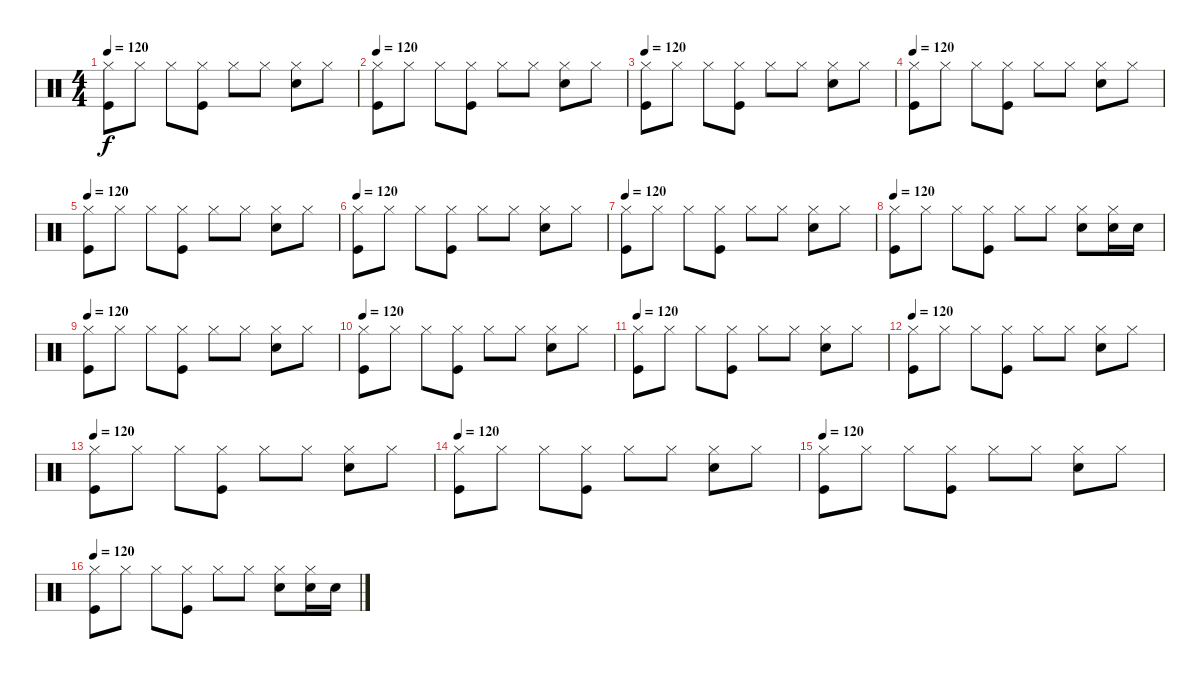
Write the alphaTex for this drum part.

\track "" {instrument percussion}
\staff {score}
\articulation defaults
\ts (4 4)
\tempo 120
\clef neutral
\ks c
("Hi-Hat (closed)" "Kick (hit)").8{dy f} "Hi-Hat (closed)".8 "Hi-Hat (closed)".8 ("Kick (hit)" "Hi-Hat (closed)").8 "Hi-Hat (closed)".8 "Hi-Hat (closed)".8 ("Electric Snare (hit)" "Hi-Hat (closed)").8 "Hi-Hat (closed)".8 |
\tempo 120
("Hi-Hat (closed)" "Kick (hit)").8 "Hi-Hat (closed)".8 "Hi-Hat (closed)".8 ("Kick (hit)" "Hi-Hat (closed)").8 "Hi-Hat (closed)".8 "Hi-Hat (closed)".8 ("Electric Snare (hit)" "Hi-Hat (closed)").8 "Hi-Hat (closed)".8 |
\tempo 120
("Hi-Hat (closed)" "Kick (hit)").8 "Hi-Hat (closed)".8 "Hi-Hat (closed)".8 ("Kick (hit)" "Hi-Hat (closed)").8 "Hi-Hat (closed)".8 "Hi-Hat (closed)".8 ("Electric Snare (hit)" "Hi-Hat (closed)").8 "Hi-Hat (closed)".8 |
\tempo 120
("Hi-Hat (closed)" "Kick (hit)").8 "Hi-Hat (closed)".8 "Hi-Hat (closed)".8 ("Kick (hit)" "Hi-Hat (closed)").8 "Hi-Hat (closed)".8 "Hi-Hat (closed)".8 ("Electric Snare (hit)" "Hi-Hat (closed)").8 "Hi-Hat (closed)".8 |
\tempo 120
("Hi-Hat (closed)" "Kick (hit)").8 "Hi-Hat (closed)".8 "Hi-Hat (closed)".8 ("Kick (hit)" "Hi-Hat (closed)").8 "Hi-Hat (closed)".8 "Hi-Hat (closed)".8 ("Electric Snare (hit)" "Hi-Hat (closed)").8 "Hi-Hat (closed)".8 |
\tempo 120
("Hi-Hat (closed)" "Kick (hit)").8 "Hi-Hat (closed)".8 "Hi-Hat (closed)".8 ("Kick (hit)" "Hi-Hat (closed)").8 "Hi-Hat (closed)".8 "Hi-Hat (closed)".8 ("Electric Snare (hit)" "Hi-Hat (closed)").8 "Hi-Hat (closed)".8 |
\tempo 120
("Hi-Hat (closed)" "Kick (hit)").8 "Hi-Hat (closed)".8 "Hi-Hat (closed)".8 ("Kick (hit)" "Hi-Hat (closed)").8 "Hi-Hat (closed)".8 "Hi-Hat (closed)".8 ("Electric Snare (hit)" "Hi-Hat (closed)").8 "Hi-Hat (closed)".8 |
\tempo 120
("Hi-Hat (closed)" "Kick (hit)").8 "Hi-Hat (closed)".8 "Hi-Hat (closed)".8 ("Kick (hit)" "Hi-Hat (closed)").8 "Hi-Hat (closed)".8 "Hi-Hat (closed)".8 ("Electric Snare (hit)" "Hi-Hat (closed)").8 ("Electric Snare (hit)" "Hi-Hat (closed)").16 "Electric Snare (hit)".16 |
\tempo 120
("Hi-Hat (closed)" "Kick (hit)").8 "Hi-Hat (closed)".8 "Hi-Hat (closed)".8 ("Kick (hit)" "Hi-Hat (closed)").8 "Hi-Hat (closed)".8 "Hi-Hat (closed)".8 ("Electric Snare (hit)" "Hi-Hat (closed)").8 "Hi-Hat (closed)".8 |
\tempo 120
("Hi-Hat (closed)" "Kick (hit)").8 "Hi-Hat (closed)".8 "Hi-Hat (closed)".8 ("Kick (hit)" "Hi-Hat (closed)").8 "Hi-Hat (closed)".8 "Hi-Hat (closed)".8 ("Electric Snare (hit)" "Hi-Hat (closed)").8 "Hi-Hat (closed)".8 |
\tempo 120
("Hi-Hat (closed)" "Kick (hit)").8 "Hi-Hat (closed)".8 "Hi-Hat (closed)".8 ("Kick (hit)" "Hi-Hat (closed)").8 "Hi-Hat (closed)".8 "Hi-Hat (closed)".8 ("Electric Snare (hit)" "Hi-Hat (closed)").8 "Hi-Hat (closed)".8 |
\tempo 120
("Hi-Hat (closed)" "Kick (hit)").8 "Hi-Hat (closed)".8 "Hi-Hat (closed)".8 ("Kick (hit)" "Hi-Hat (closed)").8 "Hi-Hat (closed)".8 "Hi-Hat (closed)".8 ("Electric Snare (hit)" "Hi-Hat (closed)").8 "Hi-Hat (closed)".8 |
\tempo 120
("Hi-Hat (closed)" "Kick (hit)").8 "Hi-Hat (closed)".8 "Hi-Hat (closed)".8 ("Kick (hit)" "Hi-Hat (closed)").8 "Hi-Hat (closed)".8 "Hi-Hat (closed)".8 ("Electric Snare (hit)" "Hi-Hat (closed)").8 "Hi-Hat (closed)".8 |
\tempo 120
("Hi-Hat (closed)" "Kick (hit)").8 "Hi-Hat (closed)".8 "Hi-Hat (closed)".8 ("Kick (hit)" "Hi-Hat (closed)").8 "Hi-Hat (closed)".8 "Hi-Hat (closed)".8 ("Electric Snare (hit)" "Hi-Hat (closed)").8 "Hi-Hat (closed)".8 |
\tempo 120
("Hi-Hat (closed)" "Kick (hit)").8 "Hi-Hat (closed)".8 "Hi-Hat (closed)".8 ("Kick (hit)" "Hi-Hat (closed)").8 "Hi-Hat (closed)".8 "Hi-Hat (closed)".8 ("Electric Snare (hit)" "Hi-Hat (closed)").8 "Hi-Hat (closed)".8 |
\tempo 120
("Hi-Hat (closed)" "Kick (hit)").8 "Hi-Hat (closed)".8 "Hi-Hat (closed)".8 ("Kick (hit)" "Hi-Hat (closed)").8 "Hi-Hat (closed)".8 "Hi-Hat (closed)".8 ("Electric Snare (hit)" "Hi-Hat (closed)").8 ("Electric Snare (hit)" "Hi-Hat (closed)").16 "Electric Snare (hit)".16
